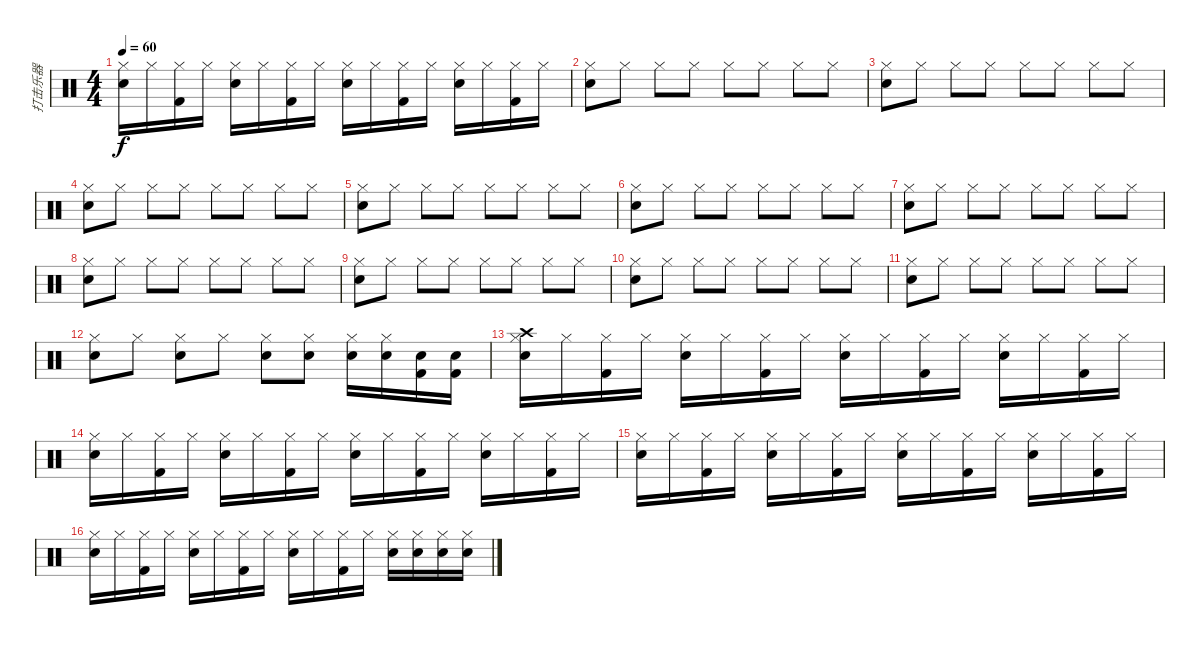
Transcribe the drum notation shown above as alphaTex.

\track ("打击乐器" "打击乐器") {instrument percussion}
\staff {score}
\articulation defaults
\ts (4 4)
\tempo 60
\clef neutral
\ks c
("Snare (hit) 2" "Hi-Hat (closed)").16{dy f} "Hi-Hat (closed)".16 ("Kick (hit) 2" "Hi-Hat (closed)").16 "Hi-Hat (closed)".16 ("Snare (hit) 2" "Hi-Hat (closed)").16 "Hi-Hat (closed)".16 ("Kick (hit) 2" "Hi-Hat (closed)").16 "Hi-Hat (closed)".16 ("Snare (hit) 2" "Hi-Hat (closed)").16 "Hi-Hat (closed)".16 ("Kick (hit) 2" "Hi-Hat (closed)").16 "Hi-Hat (closed)".16 ("Snare (hit) 2" "Hi-Hat (closed)").16 "Hi-Hat (closed)".16 ("Kick (hit) 2" "Hi-Hat (closed)").16 "Hi-Hat (closed)".16 |
("Snare (hit) 2" "Hi-Hat (closed)").8 "Hi-Hat (closed)".8 "Hi-Hat (closed)".8 "Hi-Hat (closed)".8 "Hi-Hat (closed)".8 "Hi-Hat (closed)".8 "Hi-Hat (closed)".8 "Hi-Hat (closed)".8 |
("Snare (hit) 2" "Hi-Hat (closed)").8 "Hi-Hat (closed)".8 "Hi-Hat (closed)".8 "Hi-Hat (closed)".8 "Hi-Hat (closed)".8 "Hi-Hat (closed)".8 "Hi-Hat (closed)".8 "Hi-Hat (closed)".8 |
("Snare (hit) 2" "Hi-Hat (closed)").8 "Hi-Hat (closed)".8 "Hi-Hat (closed)".8 "Hi-Hat (closed)".8 "Hi-Hat (closed)".8 "Hi-Hat (closed)".8 "Hi-Hat (closed)".8 "Hi-Hat (closed)".8 |
("Snare (hit) 2" "Hi-Hat (closed)").8 "Hi-Hat (closed)".8 "Hi-Hat (closed)".8 "Hi-Hat (closed)".8 "Hi-Hat (closed)".8 "Hi-Hat (closed)".8 "Hi-Hat (closed)".8 "Hi-Hat (closed)".8 |
("Snare (hit) 2" "Hi-Hat (closed)").8 "Hi-Hat (closed)".8 "Hi-Hat (closed)".8 "Hi-Hat (closed)".8 "Hi-Hat (closed)".8 "Hi-Hat (closed)".8 "Hi-Hat (closed)".8 "Hi-Hat (closed)".8 |
("Snare (hit) 2" "Hi-Hat (closed)").8 "Hi-Hat (closed)".8 "Hi-Hat (closed)".8 "Hi-Hat (closed)".8 "Hi-Hat (closed)".8 "Hi-Hat (closed)".8 "Hi-Hat (closed)".8 "Hi-Hat (closed)".8 |
("Snare (hit) 2" "Hi-Hat (closed)").8 "Hi-Hat (closed)".8 "Hi-Hat (closed)".8 "Hi-Hat (closed)".8 "Hi-Hat (closed)".8 "Hi-Hat (closed)".8 "Hi-Hat (closed)".8 "Hi-Hat (closed)".8 |
("Snare (hit) 2" "Hi-Hat (closed)").8 "Hi-Hat (closed)".8 "Hi-Hat (closed)".8 "Hi-Hat (closed)".8 "Hi-Hat (closed)".8 "Hi-Hat (closed)".8 "Hi-Hat (closed)".8 "Hi-Hat (closed)".8 |
("Snare (hit) 2" "Hi-Hat (closed)").8 "Hi-Hat (closed)".8 "Hi-Hat (closed)".8 "Hi-Hat (closed)".8 "Hi-Hat (closed)".8 "Hi-Hat (closed)".8 "Hi-Hat (closed)".8 "Hi-Hat (closed)".8 |
("Snare (hit) 2" "Hi-Hat (closed)").8 "Hi-Hat (closed)".8 "Hi-Hat (closed)".8 "Hi-Hat (closed)".8 "Hi-Hat (closed)".8 "Hi-Hat (closed)".8 "Hi-Hat (closed)".8 "Hi-Hat (closed)".8 |
("Snare (hit) 2" "Hi-Hat (closed)").8 "Hi-Hat (closed)".8 ("Snare (hit) 2" "Hi-Hat (closed)").8 "Hi-Hat (closed)".8 ("Snare (hit) 2" "Hi-Hat (closed)").8 ("Snare (hit) 2" "Hi-Hat (closed)").8 ("Snare (hit) 2" "Hi-Hat (closed)").16 ("Snare (hit) 2" "Hi-Hat (closed)").16 ("Kick (hit) 2" "Snare (hit) 2").16 ("Kick (hit) 2" "Snare (hit) 2").16 |
("Crash high (hit)" "Snare (hit) 2" "Hi-Hat (closed)").16 "Hi-Hat (closed)".16 ("Kick (hit) 2" "Hi-Hat (closed)").16 "Hi-Hat (closed)".16 ("Snare (hit) 2" "Hi-Hat (closed)").16 "Hi-Hat (closed)".16 ("Kick (hit) 2" "Hi-Hat (closed)").16 "Hi-Hat (closed)".16 ("Snare (hit) 2" "Hi-Hat (closed)").16 "Hi-Hat (closed)".16 ("Kick (hit) 2" "Hi-Hat (closed)").16 "Hi-Hat (closed)".16 ("Snare (hit) 2" "Hi-Hat (closed)").16 "Hi-Hat (closed)".16 ("Kick (hit) 2" "Hi-Hat (closed)").16 "Hi-Hat (closed)".16 |
("Snare (hit) 2" "Hi-Hat (closed)").16 "Hi-Hat (closed)".16 ("Kick (hit) 2" "Hi-Hat (closed)").16 "Hi-Hat (closed)".16 ("Snare (hit) 2" "Hi-Hat (closed)").16 "Hi-Hat (closed)".16 ("Kick (hit) 2" "Hi-Hat (closed)").16 "Hi-Hat (closed)".16 ("Snare (hit) 2" "Hi-Hat (closed)").16 "Hi-Hat (closed)".16 ("Kick (hit) 2" "Hi-Hat (closed)").16 "Hi-Hat (closed)".16 ("Snare (hit) 2" "Hi-Hat (closed)").16 "Hi-Hat (closed)".16 ("Kick (hit) 2" "Hi-Hat (closed)").16 "Hi-Hat (closed)".16 |
("Snare (hit) 2" "Hi-Hat (closed)").16 "Hi-Hat (closed)".16 ("Kick (hit) 2" "Hi-Hat (closed)").16 "Hi-Hat (closed)".16 ("Snare (hit) 2" "Hi-Hat (closed)").16 "Hi-Hat (closed)".16 ("Kick (hit) 2" "Hi-Hat (closed)").16 "Hi-Hat (closed)".16 ("Snare (hit) 2" "Hi-Hat (closed)").16 "Hi-Hat (closed)".16 ("Kick (hit) 2" "Hi-Hat (closed)").16 "Hi-Hat (closed)".16 ("Snare (hit) 2" "Hi-Hat (closed)").16 "Hi-Hat (closed)".16 ("Kick (hit) 2" "Hi-Hat (closed)").16 "Hi-Hat (closed)".16 |
("Snare (hit) 2" "Hi-Hat (closed)").16 "Hi-Hat (closed)".16 ("Kick (hit) 2" "Hi-Hat (closed)").16 "Hi-Hat (closed)".16 ("Snare (hit) 2" "Hi-Hat (closed)").16 "Hi-Hat (closed)".16 ("Kick (hit) 2" "Hi-Hat (closed)").16 "Hi-Hat (closed)".16 ("Snare (hit) 2" "Hi-Hat (closed)").16 "Hi-Hat (closed)".16 ("Kick (hit) 2" "Hi-Hat (closed)").16 "Hi-Hat (closed)".16 ("Snare (hit) 2" "Hi-Hat (closed)").16 ("Snare (hit) 2" "Hi-Hat (closed)").16 ("Snare (hit) 2" "Hi-Hat (closed)").16 ("Snare (hit) 2" "Hi-Hat (closed)").16
